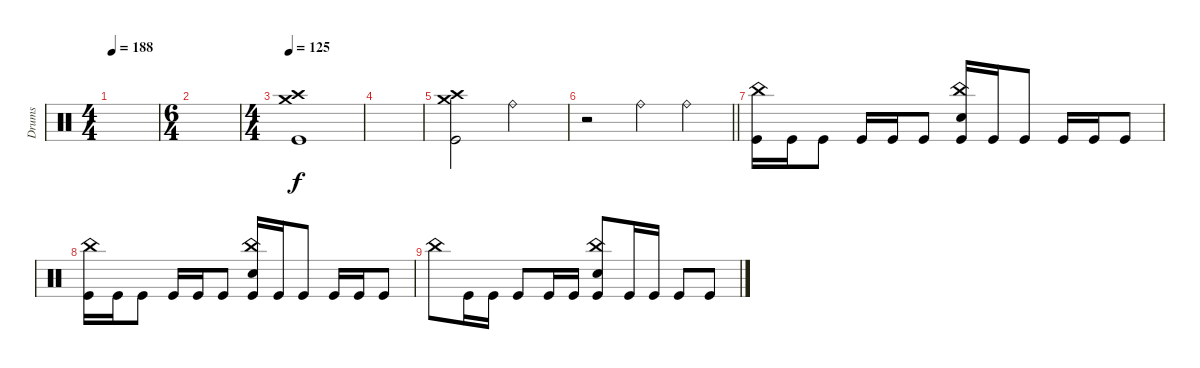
\track ("Drums" "Drums") {instrument percussion}
\staff
\articulation defaults
\ts (4 4)
\tempo 188
\clef neutral
\ks c
|
\ts (6 4)
|
\ts (4 4)
\tempo 125
("Crash high (hit)" "Crash medium (hit)" "Kick (hit)").1 |
|
("Crash high (hit)" "Crash medium (hit)" "Kick (hit)").2 "Ride (bell)".2 |
\barLineRight lightlight
r.2 "Ride (bell)".4 "Ride (bell)".4 |
\section ("" "")
("China (hit)" "Kick (hit)").16 "Kick (hit)".16 "Kick (hit)".8 "Kick (hit)".16 "Kick (hit)".16 "Kick (hit)".8 ("China (hit)" "Electric Snare (hit)" "Kick (hit)").16 "Kick (hit)".16 "Kick (hit)".8 "Kick (hit)".16 "Kick (hit)".16 "Kick (hit)".8 |
("China (hit)" "Kick (hit)").16 "Kick (hit)".16 "Kick (hit)".8 "Kick (hit)".16 "Kick (hit)".16 "Kick (hit)".8 ("China (hit)" "Electric Snare (hit)" "Kick (hit)").16 "Kick (hit)".16 "Kick (hit)".8 "Kick (hit)".16 "Kick (hit)".16 "Kick (hit)".8 |
"China (hit)".8 "Kick (hit)".16 "Kick (hit)".16 "Kick (hit)".8 "Kick (hit)".16 "Kick (hit)".16 ("China (hit)" "Electric Snare (hit)" "Kick (hit)").8 "Kick (hit)".16 "Kick (hit)".16 "Kick (hit)".8 "Kick (hit)".8
